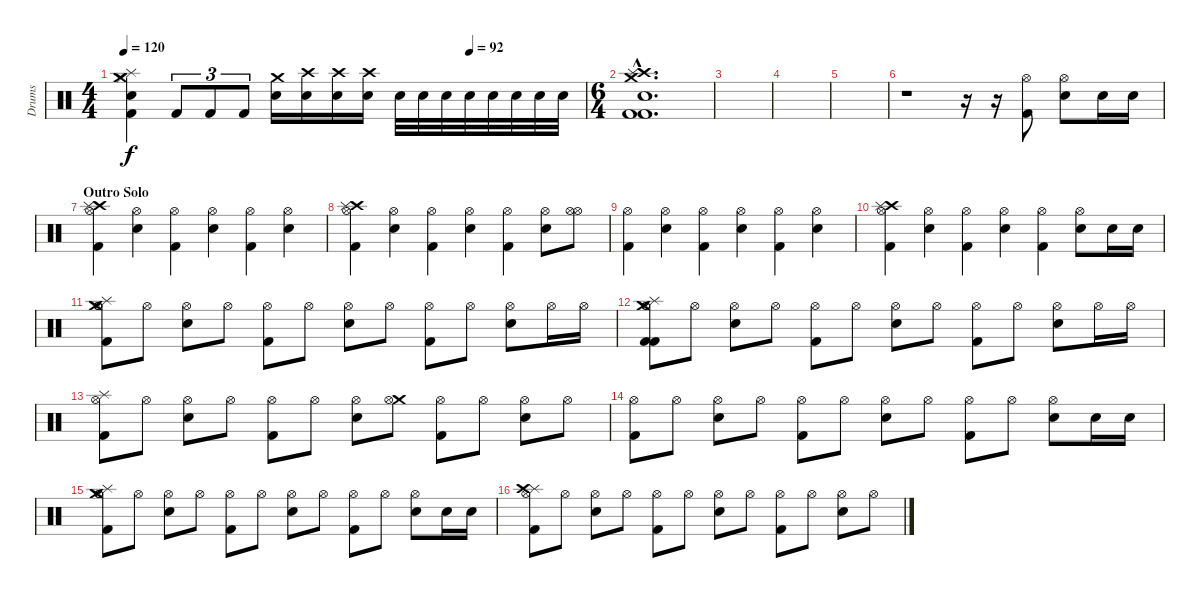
\track ("Drums" "Drums") {instrument percussion}
\staff {score}
\articulation defaults
\ts (4 4)
\tempo 120
\tempo (92 0.75)
\clef neutral
\ks c
("Hi-Hat (closed)" "Snare (hit) 2" "Kick (hit) 2" "Splash (hit)" "Crash medium (hit)").4{dy f} "Kick (hit) 2".8{tu (3 2)} "Kick (hit) 2".8{tu (3 2)} "Kick (hit) 2".8{tu (3 2)} ("Snare (hit) 2" "Crash medium (hit)").16 ("Snare (hit) 2" "Crash high (hit)").16 ("Snare (hit) 2" "Crash high (hit)").16 ("Snare (hit) 2" "Crash high (hit)").16 "Snare (hit) 2".32 "Snare (hit) 2".32 "Snare (hit) 2".32 "Snare (hit) 2".32 "Snare (hit) 2".32 "Snare (hit) 2".32 "Snare (hit) 2".32 "Snare (hit) 2".32 |
\ts (6 4)
("Snare (hit) 2"{hac} "Crash high (hit)"{hac} "Crash medium (hit)"{hac} "Kick (hit) 2"{hac} "Kick (hit) 2"{hac} "Splash (hit)"{hac}).1{d} |
|
|
|
r.1 r.16 r.16 ("Hi-Hat (open)" "Kick (hit) 2").8 ("Hi-Hat (open)" "Snare (hit) 2").8 "Snare (hit) 2".16 "Snare (hit) 2".16 |
\section ("" "Outro Solo")
("Crash high (hit)" "Splash (hit)" "Hi-Hat (open)" "Kick (hit) 2").4 ("Hi-Hat (open)" "Snare (hit) 2").4 ("Hi-Hat (open)" "Kick (hit) 2").4 ("Hi-Hat (open)" "Snare (hit) 2").4 ("Hi-Hat (open)" "Kick (hit) 2").4 ("Hi-Hat (open)" "Snare (hit) 2").4 |
("Crash high (hit)" "Splash (hit)" "Hi-Hat (open)" "Kick (hit) 2").4 ("Hi-Hat (open)" "Snare (hit) 2").4 ("Hi-Hat (open)" "Kick (hit) 2").4 ("Hi-Hat (open)" "Snare (hit) 2").4 ("Hi-Hat (open)" "Kick (hit) 2").4 ("Hi-Hat (open)" "Snare (hit) 2").8 ("Hi-Hat (open)" "Hi-Hat (open)").8 |
("Hi-Hat (open)" "Kick (hit) 2").4 ("Hi-Hat (open)" "Snare (hit) 2").4 ("Hi-Hat (open)" "Kick (hit) 2").4 ("Hi-Hat (open)" "Snare (hit) 2").4 ("Hi-Hat (open)" "Kick (hit) 2").4 ("Hi-Hat (open)" "Snare (hit) 2").4 |
("Crash high (hit)" "Splash (hit)" "Hi-Hat (open)" "Kick (hit) 2").4 ("Hi-Hat (open)" "Snare (hit) 2").4 ("Hi-Hat (open)" "Kick (hit) 2").4 ("Hi-Hat (open)" "Snare (hit) 2").4 ("Hi-Hat (open)" "Kick (hit) 2").4 ("Hi-Hat (open)" "Snare (hit) 2").8 "Snare (hit) 2".16 "Snare (hit) 2".16 |
("Hi-Hat (open)" "Splash (hit)" "Crash medium (hit)" "Hi-Hat (open)" "Kick (hit) 2").8 "Hi-Hat (open)".8 ("Hi-Hat (open)" "Snare (hit) 2").8 "Hi-Hat (open)".8 ("Hi-Hat (open)" "Kick (hit) 2").8 "Hi-Hat (open)".8 ("Hi-Hat (open)" "Snare (hit) 2").8 "Hi-Hat (open)".8 ("Hi-Hat (open)" "Kick (hit) 2").8 "Hi-Hat (open)".8 ("Hi-Hat (open)" "Snare (hit) 2").8 "Hi-Hat (open)".16 "Hi-Hat (open)".16 |
("Kick (hit) 2" "Hi-Hat (open)" "Splash (hit)" "Crash medium (hit)" "Hi-Hat (open)" "Kick (hit) 2").8 "Hi-Hat (open)".8 ("Hi-Hat (open)" "Snare (hit) 2").8 "Hi-Hat (open)".8 ("Hi-Hat (open)" "Kick (hit) 2").8 "Hi-Hat (open)".8 ("Hi-Hat (open)" "Snare (hit) 2").8 "Hi-Hat (open)".8 ("Hi-Hat (open)" "Kick (hit) 2").8 "Hi-Hat (open)".8 ("Hi-Hat (open)" "Snare (hit) 2").8 "Hi-Hat (open)".16 "Hi-Hat (open)".16 |
("Splash (hit)" "Hi-Hat (open)" "Kick (hit) 2").8 "Hi-Hat (open)".8 ("Hi-Hat (open)" "Snare (hit) 2").8 "Hi-Hat (open)".8 ("Hi-Hat (open)" "Kick (hit) 2").8 "Hi-Hat (open)".8 ("Hi-Hat (open)" "Snare (hit) 2").8 ("Crash medium (hit)" "Hi-Hat (open)").8 ("Hi-Hat (open)" "Kick (hit) 2").8 "Hi-Hat (open)".8 ("Hi-Hat (open)" "Snare (hit) 2").8 "Hi-Hat (open)".8 |
("Hi-Hat (open)" "Kick (hit) 2").8 "Hi-Hat (open)".8 ("Hi-Hat (open)" "Snare (hit) 2").8 "Hi-Hat (open)".8 ("Hi-Hat (open)" "Kick (hit) 2").8 "Hi-Hat (open)".8 ("Hi-Hat (open)" "Snare (hit) 2").8 "Hi-Hat (open)".8 ("Hi-Hat (open)" "Kick (hit) 2").8 "Hi-Hat (open)".8 ("Hi-Hat (open)" "Snare (hit) 2").8 "Snare (hit) 2".16 "Snare (hit) 2".16 |
("Hi-Hat (open)" "Splash (hit)" "Crash medium (hit)" "Hi-Hat (open)" "Kick (hit) 2").8 "Hi-Hat (open)".8 ("Hi-Hat (open)" "Snare (hit) 2").8 "Hi-Hat (open)".8 ("Hi-Hat (open)" "Kick (hit) 2").8 "Hi-Hat (open)".8 ("Hi-Hat (open)" "Snare (hit) 2").8 "Hi-Hat (open)".8 ("Hi-Hat (open)" "Kick (hit) 2").8 "Hi-Hat (open)".8 ("Hi-Hat (open)" "Snare (hit) 2").8 "Snare (hit) 2".16 "Snare (hit) 2".16 |
("Splash (hit)" "Crash high (hit)" "Hi-Hat (open)" "Kick (hit) 2").8 "Hi-Hat (open)".8 ("Hi-Hat (open)" "Snare (hit) 2").8 "Hi-Hat (open)".8 ("Hi-Hat (open)" "Kick (hit) 2").8 "Hi-Hat (open)".8 ("Hi-Hat (open)" "Snare (hit) 2").8 "Hi-Hat (open)".8 ("Hi-Hat (open)" "Kick (hit) 2").8 "Hi-Hat (open)".8 ("Hi-Hat (open)" "Snare (hit) 2").8 "Hi-Hat (open)".8
